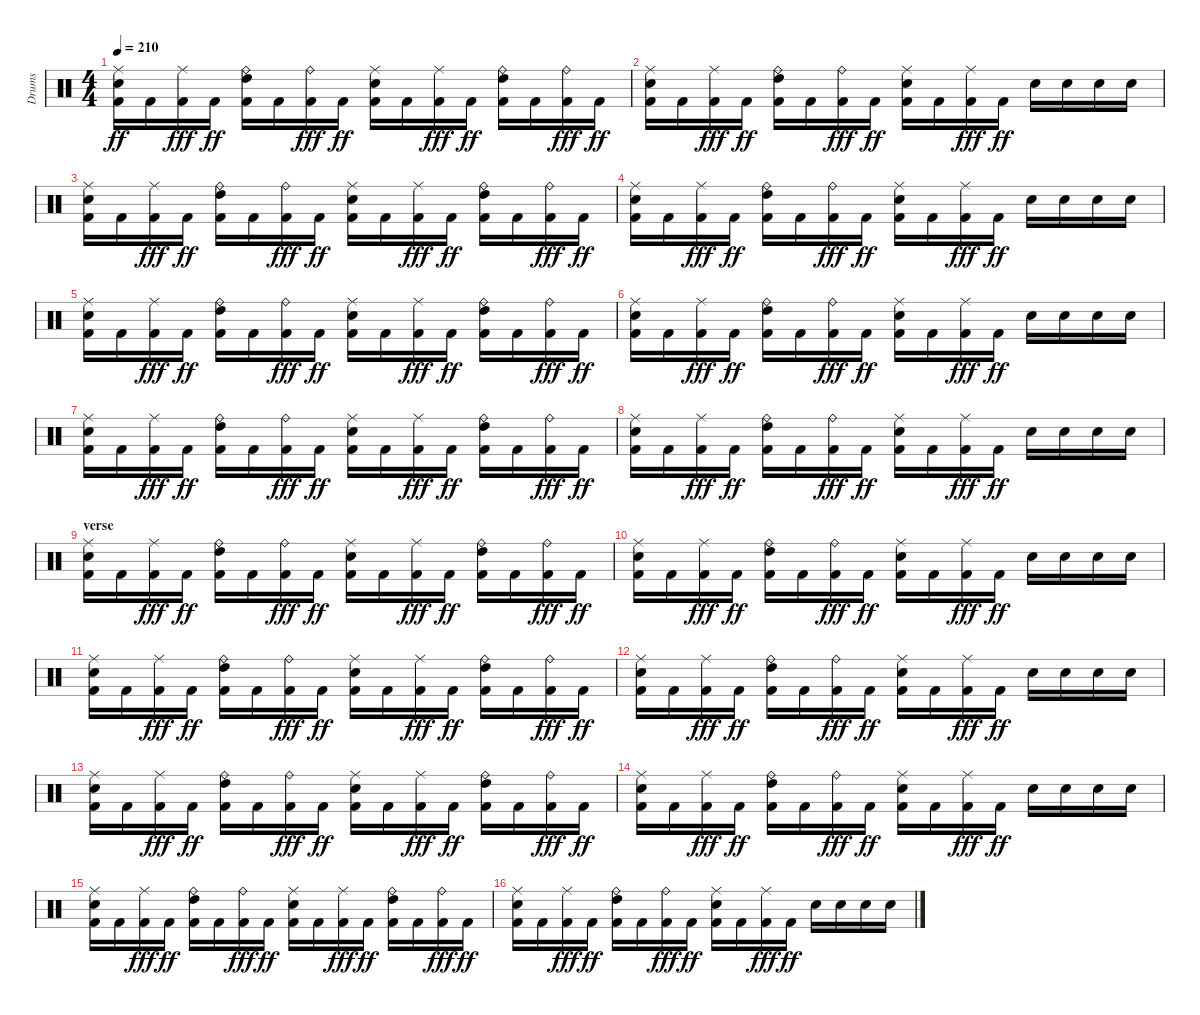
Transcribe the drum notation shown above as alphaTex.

\track ("Drums" "Drums") {instrument percussion}
\staff {score}
\articulation defaults
\ts (4 4)
\tempo 210
\clef neutral
\ks c
("Kick (hit) 2" "Ride (middle)" "Electric Snare (hit)").16{dy ff} "Kick (hit) 2".16 ("Kick (hit) 2" "Ride (middle)").16{dy fff} "Kick (hit) 2".16{dy ff} ("Kick (hit) 2" "Ride (bell)" "High Tom (hit)").16 "Kick (hit) 2".16 ("Kick (hit) 2" "Ride (bell)").16{dy fff} "Kick (hit) 2".16{dy ff} ("Kick (hit) 2" "Ride (middle)" "Electric Snare (hit)").16 "Kick (hit) 2".16 ("Kick (hit) 2" "Ride (middle)").16{dy fff} "Kick (hit) 2".16{dy ff} ("Kick (hit) 2" "Ride (bell)" "High Tom (hit)").16 "Kick (hit) 2".16 ("Kick (hit) 2" "Ride (bell)").16{dy fff} "Kick (hit) 2".16{dy ff} |
("Kick (hit) 2" "Ride (middle)" "Electric Snare (hit)").16 "Kick (hit) 2".16 ("Kick (hit) 2" "Ride (middle)").16{dy fff} "Kick (hit) 2".16{dy ff} ("Kick (hit) 2" "Ride (bell)" "High Tom (hit)").16 "Kick (hit) 2".16 ("Kick (hit) 2" "Ride (bell)").16{dy fff} "Kick (hit) 2".16{dy ff} ("Kick (hit) 2" "Ride (middle)" "Electric Snare (hit)").16 "Kick (hit) 2".16 ("Kick (hit) 2" "Ride (middle)").16{dy fff} "Kick (hit) 2".16{dy ff} "Electric Snare (hit)".16 "Electric Snare (hit)".16 "Electric Snare (hit)".16 "Electric Snare (hit)".16 |
("Kick (hit) 2" "Ride (middle)" "Electric Snare (hit)").16 "Kick (hit) 2".16 ("Kick (hit) 2" "Ride (middle)").16{dy fff} "Kick (hit) 2".16{dy ff} ("Kick (hit) 2" "Ride (bell)" "High Tom (hit)").16 "Kick (hit) 2".16 ("Kick (hit) 2" "Ride (bell)").16{dy fff} "Kick (hit) 2".16{dy ff} ("Kick (hit) 2" "Ride (middle)" "Electric Snare (hit)").16 "Kick (hit) 2".16 ("Kick (hit) 2" "Ride (middle)").16{dy fff} "Kick (hit) 2".16{dy ff} ("Kick (hit) 2" "Ride (bell)" "High Tom (hit)").16 "Kick (hit) 2".16 ("Kick (hit) 2" "Ride (bell)").16{dy fff} "Kick (hit) 2".16{dy ff} |
("Kick (hit) 2" "Ride (middle)" "Electric Snare (hit)").16 "Kick (hit) 2".16 ("Kick (hit) 2" "Ride (middle)").16{dy fff} "Kick (hit) 2".16{dy ff} ("Kick (hit) 2" "Ride (bell)" "High Tom (hit)").16 "Kick (hit) 2".16 ("Kick (hit) 2" "Ride (bell)").16{dy fff} "Kick (hit) 2".16{dy ff} ("Kick (hit) 2" "Ride (middle)" "Electric Snare (hit)").16 "Kick (hit) 2".16 ("Kick (hit) 2" "Ride (middle)").16{dy fff} "Kick (hit) 2".16{dy ff} "Electric Snare (hit)".16 "Electric Snare (hit)".16 "Electric Snare (hit)".16 "Electric Snare (hit)".16 |
("Kick (hit) 2" "Ride (middle)" "Electric Snare (hit)").16 "Kick (hit) 2".16 ("Kick (hit) 2" "Ride (middle)").16{dy fff} "Kick (hit) 2".16{dy ff} ("Kick (hit) 2" "Ride (bell)" "High Tom (hit)").16 "Kick (hit) 2".16 ("Kick (hit) 2" "Ride (bell)").16{dy fff} "Kick (hit) 2".16{dy ff} ("Kick (hit) 2" "Ride (middle)" "Electric Snare (hit)").16 "Kick (hit) 2".16 ("Kick (hit) 2" "Ride (middle)").16{dy fff} "Kick (hit) 2".16{dy ff} ("Kick (hit) 2" "Ride (bell)" "High Tom (hit)").16 "Kick (hit) 2".16 ("Kick (hit) 2" "Ride (bell)").16{dy fff} "Kick (hit) 2".16{dy ff} |
("Kick (hit) 2" "Ride (middle)" "Electric Snare (hit)").16 "Kick (hit) 2".16 ("Kick (hit) 2" "Ride (middle)").16{dy fff} "Kick (hit) 2".16{dy ff} ("Kick (hit) 2" "Ride (bell)" "High Tom (hit)").16 "Kick (hit) 2".16 ("Kick (hit) 2" "Ride (bell)").16{dy fff} "Kick (hit) 2".16{dy ff} ("Kick (hit) 2" "Ride (middle)" "Electric Snare (hit)").16 "Kick (hit) 2".16 ("Kick (hit) 2" "Ride (middle)").16{dy fff} "Kick (hit) 2".16{dy ff} "Electric Snare (hit)".16 "Electric Snare (hit)".16 "Electric Snare (hit)".16 "Electric Snare (hit)".16 |
("Kick (hit) 2" "Ride (middle)" "Electric Snare (hit)").16 "Kick (hit) 2".16 ("Kick (hit) 2" "Ride (middle)").16{dy fff} "Kick (hit) 2".16{dy ff} ("Kick (hit) 2" "Ride (bell)" "High Tom (hit)").16 "Kick (hit) 2".16 ("Kick (hit) 2" "Ride (bell)").16{dy fff} "Kick (hit) 2".16{dy ff} ("Kick (hit) 2" "Ride (middle)" "Electric Snare (hit)").16 "Kick (hit) 2".16 ("Kick (hit) 2" "Ride (middle)").16{dy fff} "Kick (hit) 2".16{dy ff} ("Kick (hit) 2" "Ride (bell)" "High Tom (hit)").16 "Kick (hit) 2".16 ("Kick (hit) 2" "Ride (bell)").16{dy fff} "Kick (hit) 2".16{dy ff} |
("Kick (hit) 2" "Ride (middle)" "Electric Snare (hit)").16 "Kick (hit) 2".16 ("Kick (hit) 2" "Ride (middle)").16{dy fff} "Kick (hit) 2".16{dy ff} ("Kick (hit) 2" "Ride (bell)" "High Tom (hit)").16 "Kick (hit) 2".16 ("Kick (hit) 2" "Ride (bell)").16{dy fff} "Kick (hit) 2".16{dy ff} ("Kick (hit) 2" "Ride (middle)" "Electric Snare (hit)").16 "Kick (hit) 2".16 ("Kick (hit) 2" "Ride (middle)").16{dy fff} "Kick (hit) 2".16{dy ff} "Electric Snare (hit)".16 "Electric Snare (hit)".16 "Electric Snare (hit)".16 "Electric Snare (hit)".16 |
\section ("" "verse")
("Kick (hit) 2" "Ride (middle)" "Electric Snare (hit)").16 "Kick (hit) 2".16 ("Kick (hit) 2" "Ride (middle)").16{dy fff} "Kick (hit) 2".16{dy ff} ("Kick (hit) 2" "Ride (bell)" "High Tom (hit)").16 "Kick (hit) 2".16 ("Kick (hit) 2" "Ride (bell)").16{dy fff} "Kick (hit) 2".16{dy ff} ("Kick (hit) 2" "Ride (middle)" "Electric Snare (hit)").16 "Kick (hit) 2".16 ("Kick (hit) 2" "Ride (middle)").16{dy fff} "Kick (hit) 2".16{dy ff} ("Kick (hit) 2" "Ride (bell)" "High Tom (hit)").16 "Kick (hit) 2".16 ("Kick (hit) 2" "Ride (bell)").16{dy fff} "Kick (hit) 2".16{dy ff} |
("Kick (hit) 2" "Ride (middle)" "Electric Snare (hit)").16 "Kick (hit) 2".16 ("Kick (hit) 2" "Ride (middle)").16{dy fff} "Kick (hit) 2".16{dy ff} ("Kick (hit) 2" "Ride (bell)" "High Tom (hit)").16 "Kick (hit) 2".16 ("Kick (hit) 2" "Ride (bell)").16{dy fff} "Kick (hit) 2".16{dy ff} ("Kick (hit) 2" "Ride (middle)" "Electric Snare (hit)").16 "Kick (hit) 2".16 ("Kick (hit) 2" "Ride (middle)").16{dy fff} "Kick (hit) 2".16{dy ff} "Electric Snare (hit)".16 "Electric Snare (hit)".16 "Electric Snare (hit)".16 "Electric Snare (hit)".16 |
("Kick (hit) 2" "Ride (middle)" "Electric Snare (hit)").16 "Kick (hit) 2".16 ("Kick (hit) 2" "Ride (middle)").16{dy fff} "Kick (hit) 2".16{dy ff} ("Kick (hit) 2" "Ride (bell)" "High Tom (hit)").16 "Kick (hit) 2".16 ("Kick (hit) 2" "Ride (bell)").16{dy fff} "Kick (hit) 2".16{dy ff} ("Kick (hit) 2" "Ride (middle)" "Electric Snare (hit)").16 "Kick (hit) 2".16 ("Kick (hit) 2" "Ride (middle)").16{dy fff} "Kick (hit) 2".16{dy ff} ("Kick (hit) 2" "Ride (bell)" "High Tom (hit)").16 "Kick (hit) 2".16 ("Kick (hit) 2" "Ride (bell)").16{dy fff} "Kick (hit) 2".16{dy ff} |
("Kick (hit) 2" "Ride (middle)" "Electric Snare (hit)").16 "Kick (hit) 2".16 ("Kick (hit) 2" "Ride (middle)").16{dy fff} "Kick (hit) 2".16{dy ff} ("Kick (hit) 2" "Ride (bell)" "High Tom (hit)").16 "Kick (hit) 2".16 ("Kick (hit) 2" "Ride (bell)").16{dy fff} "Kick (hit) 2".16{dy ff} ("Kick (hit) 2" "Ride (middle)" "Electric Snare (hit)").16 "Kick (hit) 2".16 ("Kick (hit) 2" "Ride (middle)").16{dy fff} "Kick (hit) 2".16{dy ff} "Electric Snare (hit)".16 "Electric Snare (hit)".16 "Electric Snare (hit)".16 "Electric Snare (hit)".16 |
("Kick (hit) 2" "Ride (middle)" "Electric Snare (hit)").16 "Kick (hit) 2".16 ("Kick (hit) 2" "Ride (middle)").16{dy fff} "Kick (hit) 2".16{dy ff} ("Kick (hit) 2" "Ride (bell)" "High Tom (hit)").16 "Kick (hit) 2".16 ("Kick (hit) 2" "Ride (bell)").16{dy fff} "Kick (hit) 2".16{dy ff} ("Kick (hit) 2" "Ride (middle)" "Electric Snare (hit)").16 "Kick (hit) 2".16 ("Kick (hit) 2" "Ride (middle)").16{dy fff} "Kick (hit) 2".16{dy ff} ("Kick (hit) 2" "Ride (bell)" "High Tom (hit)").16 "Kick (hit) 2".16 ("Kick (hit) 2" "Ride (bell)").16{dy fff} "Kick (hit) 2".16{dy ff} |
("Kick (hit) 2" "Ride (middle)" "Electric Snare (hit)").16 "Kick (hit) 2".16 ("Kick (hit) 2" "Ride (middle)").16{dy fff} "Kick (hit) 2".16{dy ff} ("Kick (hit) 2" "Ride (bell)" "High Tom (hit)").16 "Kick (hit) 2".16 ("Kick (hit) 2" "Ride (bell)").16{dy fff} "Kick (hit) 2".16{dy ff} ("Kick (hit) 2" "Ride (middle)" "Electric Snare (hit)").16 "Kick (hit) 2".16 ("Kick (hit) 2" "Ride (middle)").16{dy fff} "Kick (hit) 2".16{dy ff} "Electric Snare (hit)".16 "Electric Snare (hit)".16 "Electric Snare (hit)".16 "Electric Snare (hit)".16 |
("Kick (hit) 2" "Ride (middle)" "Electric Snare (hit)").16 "Kick (hit) 2".16 ("Kick (hit) 2" "Ride (middle)").16{dy fff} "Kick (hit) 2".16{dy ff} ("Kick (hit) 2" "Ride (bell)" "High Tom (hit)").16 "Kick (hit) 2".16 ("Kick (hit) 2" "Ride (bell)").16{dy fff} "Kick (hit) 2".16{dy ff} ("Kick (hit) 2" "Ride (middle)" "Electric Snare (hit)").16 "Kick (hit) 2".16 ("Kick (hit) 2" "Ride (middle)").16{dy fff} "Kick (hit) 2".16{dy ff} ("Kick (hit) 2" "Ride (bell)" "High Tom (hit)").16 "Kick (hit) 2".16 ("Kick (hit) 2" "Ride (bell)").16{dy fff} "Kick (hit) 2".16{dy ff} |
("Kick (hit) 2" "Ride (middle)" "Electric Snare (hit)").16 "Kick (hit) 2".16 ("Kick (hit) 2" "Ride (middle)").16{dy fff} "Kick (hit) 2".16{dy ff} ("Kick (hit) 2" "Ride (bell)" "High Tom (hit)").16 "Kick (hit) 2".16 ("Kick (hit) 2" "Ride (bell)").16{dy fff} "Kick (hit) 2".16{dy ff} ("Kick (hit) 2" "Ride (middle)" "Electric Snare (hit)").16 "Kick (hit) 2".16 ("Kick (hit) 2" "Ride (middle)").16{dy fff} "Kick (hit) 2".16{dy ff} "Electric Snare (hit)".16 "Electric Snare (hit)".16 "Electric Snare (hit)".16 "Electric Snare (hit)".16
